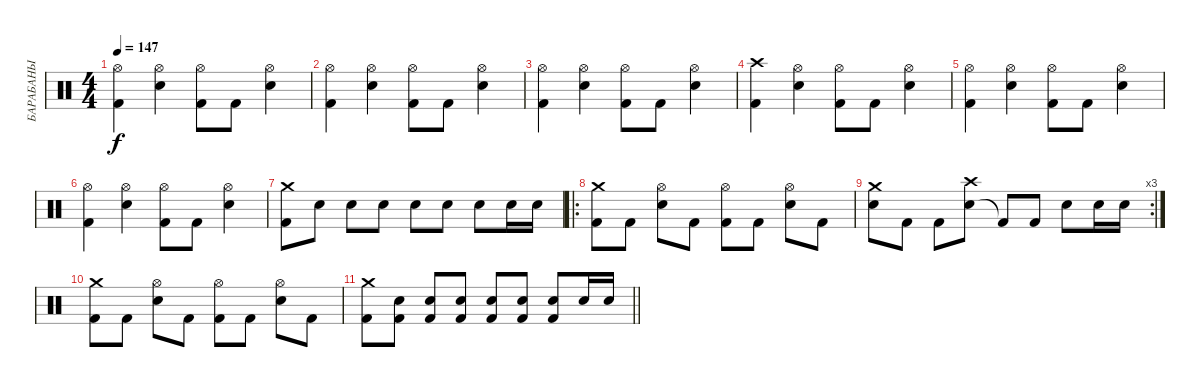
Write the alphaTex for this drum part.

\track ("БАРАБАНЫ" "БАРАБАНЫ") {instrument percussion}
\staff {score}
\articulation defaults
\ts (4 4)
\tempo 147
\clef neutral
\ks c
("Kick (hit) 2" "Hi-Hat (open)").4{dy f} ("Electric Snare (hit)" "Hi-Hat (open)").4 ("Kick (hit) 2" "Hi-Hat (open)").8 "Kick (hit) 2".8 ("Electric Snare (hit)" "Hi-Hat (open)").4 |
("Kick (hit) 2" "Hi-Hat (open)").4 ("Electric Snare (hit)" "Hi-Hat (open)").4 ("Kick (hit) 2" "Hi-Hat (open)").8 "Kick (hit) 2".8 ("Electric Snare (hit)" "Hi-Hat (open)").4 |
("Kick (hit) 2" "Hi-Hat (open)").4 ("Electric Snare (hit)" "Hi-Hat (open)").4 ("Kick (hit) 2" "Hi-Hat (open)").8 "Kick (hit) 2".8 ("Electric Snare (hit)" "Hi-Hat (open)").4 |
("Kick (hit) 2" "Crash high (hit)").4 ("Electric Snare (hit)" "Hi-Hat (open)").4 ("Kick (hit) 2" "Hi-Hat (open)").8 "Kick (hit) 2".8 ("Electric Snare (hit)" "Hi-Hat (open)").4 |
("Kick (hit) 2" "Hi-Hat (open)").4 ("Electric Snare (hit)" "Hi-Hat (open)").4 ("Kick (hit) 2" "Hi-Hat (open)").8 "Kick (hit) 2".8 ("Electric Snare (hit)" "Hi-Hat (open)").4 |
("Kick (hit) 2" "Hi-Hat (open)").4 ("Electric Snare (hit)" "Hi-Hat (open)").4 ("Kick (hit) 2" "Hi-Hat (open)").8 "Kick (hit) 2".8 ("Electric Snare (hit)" "Hi-Hat (open)").4 |
("Crash medium (hit)" "Kick (hit) 2").8 "Electric Snare (hit)".8 "Electric Snare (hit)".8 "Electric Snare (hit)".8 "Electric Snare (hit)".8 "Electric Snare (hit)".8 "Electric Snare (hit)".8 "Electric Snare (hit)".16 "Electric Snare (hit)".16 |
\ro
("Kick (hit) 2" "Crash medium (hit)").8 "Kick (hit) 2".8 ("Electric Snare (hit)" "Hi-Hat (open)").8 "Kick (hit) 2".8 ("Kick (hit) 2" "Hi-Hat (open)").8 "Kick (hit) 2".8 ("Electric Snare (hit)" "Hi-Hat (open)").8 "Kick (hit) 2".8 |
\rc 3
("Electric Snare (hit)" "Crash medium (hit)").8 "Kick (hit) 2".8 "Kick (hit) 2".8 ("Electric Snare (hit)" "Crash high (hit)").8 "Kick (hit) 2"{t}.8 "Kick (hit) 2".8 "Electric Snare (hit)".8 "Electric Snare (hit)".16 "Electric Snare (hit)".16 |
("Kick (hit) 2" "Crash medium (hit)").8 "Kick (hit) 2".8 ("Electric Snare (hit)" "Hi-Hat (open)").8 "Kick (hit) 2".8 ("Kick (hit) 2" "Hi-Hat (open)").8 "Kick (hit) 2".8 ("Electric Snare (hit)" "Hi-Hat (open)").8 "Kick (hit) 2".8 |
\barLineRight lightlight
("Crash medium (hit)" "Kick (hit) 2").8 ("Electric Snare (hit)" "Kick (hit) 2").8 ("Electric Snare (hit)" "Kick (hit) 2").8 ("Electric Snare (hit)" "Kick (hit) 2").8 ("Electric Snare (hit)" "Kick (hit) 2").8 ("Electric Snare (hit)" "Kick (hit) 2").8 ("Electric Snare (hit)" "Kick (hit) 2").8 "Electric Snare (hit)".16 "Electric Snare (hit)".16
